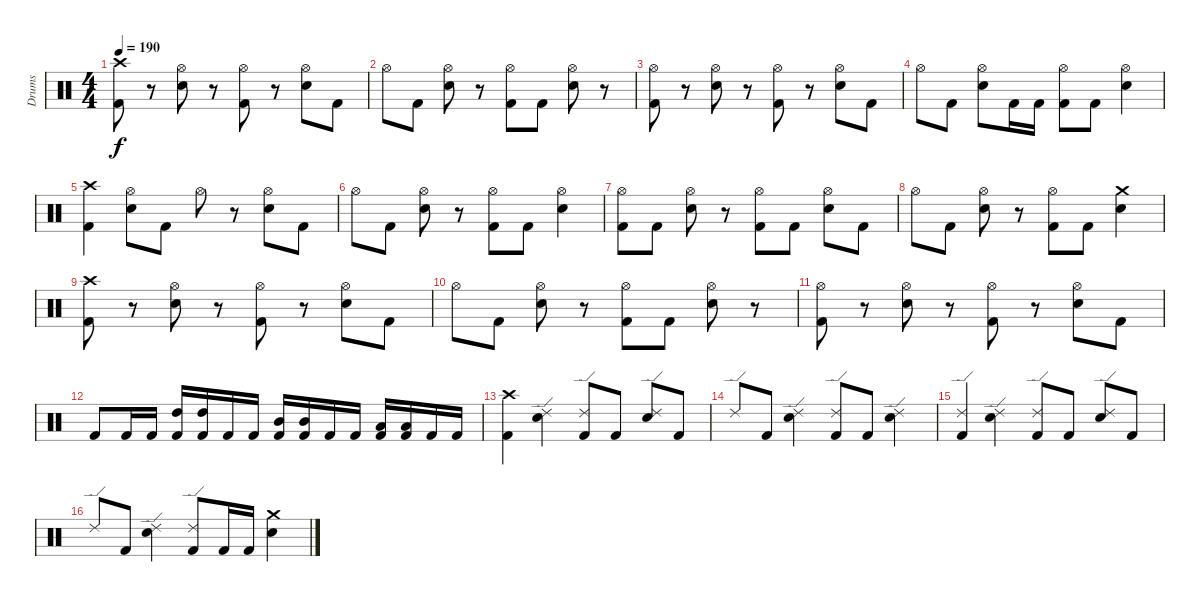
\track ("Drums" "Drums") {instrument percussion}
\staff {score}
\articulation defaults
\ts (4 4)
\tempo 190
\clef neutral
\ks c
("Crash high (hit)" "Kick (hit) 2").8{dy f} r.8 ("Hi-Hat (open)" "Snare (hit) 2").8 r.8 ("Hi-Hat (open)" "Kick (hit) 2").8 r.8 ("Hi-Hat (open)" "Snare (hit) 2").8 "Kick (hit) 2".8 |
"Hi-Hat (open)".8 "Kick (hit) 2".8 ("Hi-Hat (open)" "Snare (hit) 2").8 r.8 ("Hi-Hat (open)" "Kick (hit) 2").8 "Kick (hit) 2".8 ("Hi-Hat (open)" "Snare (hit) 2").8 r.8 |
("Hi-Hat (open)" "Kick (hit) 2").8 r.8 ("Hi-Hat (open)" "Snare (hit) 2").8 r.8 ("Hi-Hat (open)" "Kick (hit) 2").8 r.8 ("Hi-Hat (open)" "Snare (hit) 2").8 "Kick (hit) 2".8 |
"Hi-Hat (open)".8 "Kick (hit) 2".8 ("Hi-Hat (open)" "Snare (hit) 2").8 "Kick (hit) 2".16 "Kick (hit) 2".16 ("Hi-Hat (open)" "Kick (hit) 2").8 "Kick (hit) 2".8 ("Hi-Hat (open)" "Snare (hit) 2").4 |
("Crash high (hit)" "Kick (hit) 2").4 ("Hi-Hat (open)" "Snare (hit) 2").8 "Kick (hit) 2".8 "Hi-Hat (open)".8 r.8 ("Hi-Hat (open)" "Snare (hit) 2").8 "Kick (hit) 2".8 |
"Hi-Hat (open)".8 "Kick (hit) 2".8 ("Hi-Hat (open)" "Snare (hit) 2").8 r.8 ("Hi-Hat (open)" "Kick (hit) 2").8 "Kick (hit) 2".8 ("Hi-Hat (open)" "Snare (hit) 2").4 |
("Hi-Hat (open)" "Kick (hit) 2").8 "Kick (hit) 2".8 ("Hi-Hat (open)" "Snare (hit) 2").8 r.8 ("Hi-Hat (open)" "Kick (hit) 2").8 "Kick (hit) 2".8 ("Hi-Hat (open)" "Snare (hit) 2").8 "Kick (hit) 2".8 |
"Hi-Hat (open)".8 "Kick (hit) 2".8 ("Hi-Hat (open)" "Snare (hit) 2").8 r.8 ("Hi-Hat (open)" "Kick (hit) 2").8 "Kick (hit) 2".8 ("Crash medium (hit)" "Snare (hit) 2").4 |
("Crash high (hit)" "Kick (hit) 2").8 r.8 ("Hi-Hat (open)" "Snare (hit) 2").8 r.8 ("Hi-Hat (open)" "Kick (hit) 2").8 r.8 ("Hi-Hat (open)" "Snare (hit) 2").8 "Kick (hit) 2".8 |
"Hi-Hat (open)".8 "Kick (hit) 2".8 ("Hi-Hat (open)" "Snare (hit) 2").8 r.8 ("Hi-Hat (open)" "Kick (hit) 2").8 "Kick (hit) 2".8 ("Hi-Hat (open)" "Snare (hit) 2").8 r.8 |
("Hi-Hat (open)" "Kick (hit) 2").8 r.8 ("Hi-Hat (open)" "Snare (hit) 2").8 r.8 ("Hi-Hat (open)" "Kick (hit) 2").8 r.8 ("Hi-Hat (open)" "Snare (hit) 2").8 "Kick (hit) 2".8 |
"Kick (hit) 2".8 "Kick (hit) 2".16 "Kick (hit) 2".16 ("High Tom (hit)" "Kick (hit) 2").16 ("High Tom (hit)" "Kick (hit) 2").16 "Kick (hit) 2".16 "Kick (hit) 2".16 ("Mid Tom (hit)" "Kick (hit) 2").16 ("Mid Tom (hit)" "Kick (hit) 2").16 "Kick (hit) 2".16 "Kick (hit) 2".16 ("Low Tom (hit)" "Kick (hit) 2").16 ("Low Tom (hit)" "Kick (hit) 2").16 "Kick (hit) 2".16 "Kick (hit) 2".16 |
("Crash high (hit)" "Kick (hit) 2").4 ("Ride (edge) 2" "Snare (hit) 2").4 ("Ride (edge) 2" "Kick (hit) 2").8 "Kick (hit) 2".8 ("Ride (edge) 2" "Snare (hit) 2").8 "Kick (hit) 2".8 |
"Ride (edge) 2".8 "Kick (hit) 2".8 ("Ride (edge) 2" "Snare (hit) 2").4 ("Ride (edge) 2" "Kick (hit) 2").8 "Kick (hit) 2".8 ("Ride (edge) 2" "Snare (hit) 2").4 |
("Ride (edge) 2" "Kick (hit) 2").4 ("Ride (edge) 2" "Snare (hit) 2").4 ("Ride (edge) 2" "Kick (hit) 2").8 "Kick (hit) 2".8 ("Ride (edge) 2" "Snare (hit) 2").8 "Kick (hit) 2".8 |
"Ride (edge) 2".8 "Kick (hit) 2".8 ("Ride (edge) 2" "Snare (hit) 2").4 ("Ride (edge) 2" "Kick (hit) 2").8 "Kick (hit) 2".16 "Kick (hit) 2".16 ("Crash medium (hit)" "Snare (hit) 2").4
